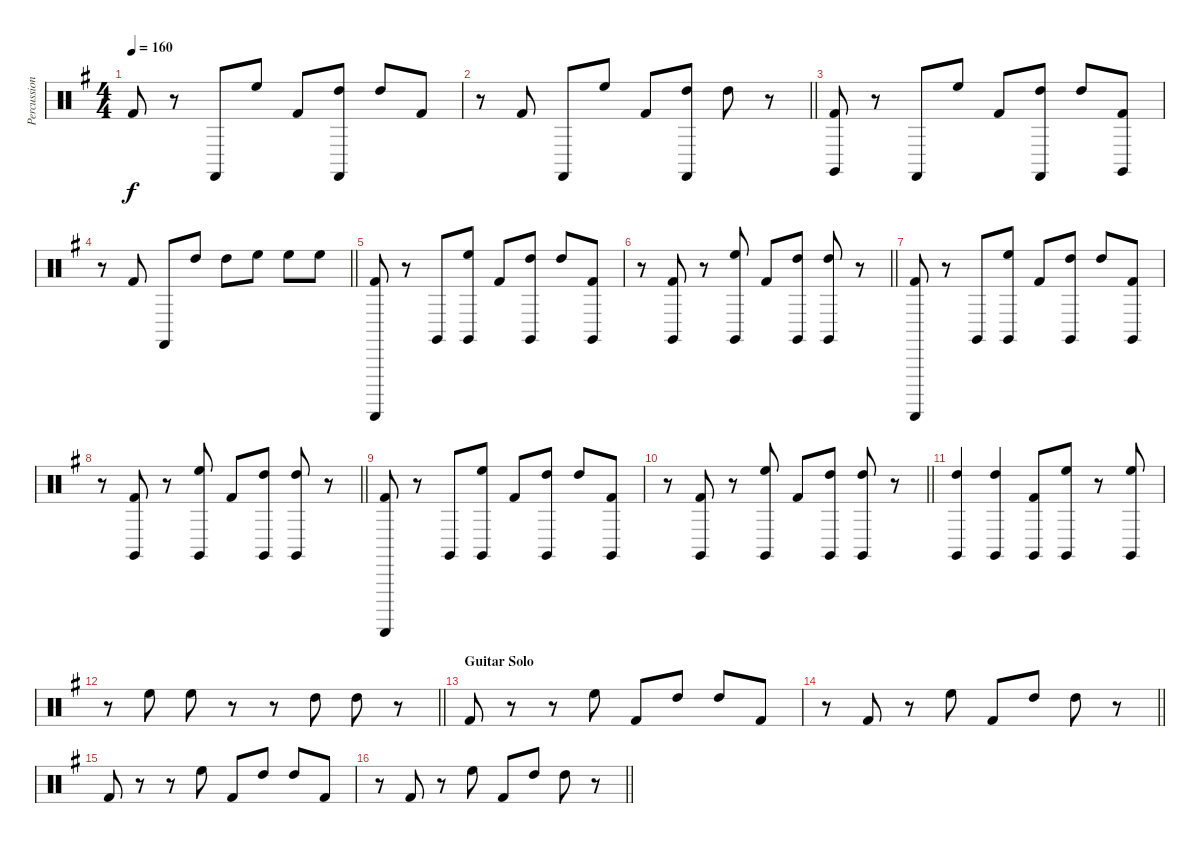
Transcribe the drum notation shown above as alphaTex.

\track ("Percussion" "Percussion") {instrument percussion}
\staff {score}
\articulation defaults
\ts (4 4)
\tempo 160
\clef neutral
\ks g "Kick (hit) 2".8{dy f}
r.8 "Castanets (hit)".8 "High Floor Tom (hit)".8 "Kick (hit) 2".8 ("High Tom (hit)" "Castanets (hit)").8 "High Tom (hit)".8 "Kick (hit) 2".8 |
\barLineRight lightlight
r.8 "Kick (hit) 2".8 "Castanets (hit)".8 "High Floor Tom (hit)".8 "Kick (hit) 2".8 ("High Tom (hit)" "Castanets (hit)").8 "High Tom (hit)".8 r.8 |
("Claves (hit)" "Kick (hit) 2").8 r.8 "Castanets (hit)".8 "High Floor Tom (hit)".8 "Kick (hit) 2".8 ("High Tom (hit)" "Castanets (hit)").8 "High Tom (hit)".8 ("Claves (hit)" "Kick (hit) 2").8 |
\barLineRight lightlight
r.8 "Kick (hit) 2".8 "Castanets (hit)".8 "High Tom (hit)".8 "High Tom (hit)".8 "High Floor Tom (hit)".8 "High Floor Tom (hit)".8 "High Floor Tom (hit)".8 |
("Guiro (scrap-return)" "Kick (hit) 2").8 r.8 "Claves (hit)".8 ("High Floor Tom (hit)" "Claves (hit)").8 "Kick (hit) 2".8 ("High Tom (hit)" "Claves (hit)").8 "High Tom (hit)".8 ("Claves (hit)" "Kick (hit) 2").8 |
\barLineRight lightlight
r.8 ("Claves (hit)" "Kick (hit) 2").8 r.8 ("High Floor Tom (hit)" "Claves (hit)").8 "Kick (hit) 2".8 ("High Tom (hit)" "Claves (hit)").8 ("High Tom (hit)" "Claves (hit)").8 r.8 |
("Guiro (scrap-return)" "Kick (hit) 2").8 r.8 "Claves (hit)".8 ("High Floor Tom (hit)" "Claves (hit)").8 "Kick (hit) 2".8 ("High Tom (hit)" "Claves (hit)").8 "High Tom (hit)".8 ("Claves (hit)" "Kick (hit) 2").8 |
\barLineRight lightlight
r.8 ("Claves (hit)" "Kick (hit) 2").8 r.8 ("High Floor Tom (hit)" "Claves (hit)").8 "Kick (hit) 2".8 ("High Tom (hit)" "Claves (hit)").8 ("High Tom (hit)" "Claves (hit)").8 r.8 |
("Guiro (scrap-return)" "Kick (hit) 2").8 r.8 "Claves (hit)".8 ("High Floor Tom (hit)" "Claves (hit)").8 "Kick (hit) 2".8 ("High Tom (hit)" "Claves (hit)").8 "High Tom (hit)".8 ("Claves (hit)" "Kick (hit) 2").8 |
\barLineRight lightlight
r.8 ("Claves (hit)" "Kick (hit) 2").8 r.8 ("High Floor Tom (hit)" "Claves (hit)").8 "Kick (hit) 2".8 ("High Tom (hit)" "Claves (hit)").8 ("High Tom (hit)" "Claves (hit)").8 r.8 |
("Claves (hit)" "High Tom (hit)").4 ("Claves (hit)" "High Tom (hit)").4 ("Claves (hit)" "Kick (hit) 2").8 ("Claves (hit)" "High Floor Tom (hit)").8 r.8 ("Claves (hit)" "High Floor Tom (hit)").8 |
\barLineRight lightlight
r.8 "High Floor Tom (hit)".8 "High Floor Tom (hit)".8 r.8 r.8 "High Tom (hit)".8 "High Tom (hit)".8 r.8 |
\section ("" "Guitar Solo")
"Kick (hit) 2".8 r.8 r.8 "High Floor Tom (hit)".8 "Kick (hit) 2".8 "High Tom (hit)".8 "High Tom (hit)".8 "Kick (hit) 2".8 |
\barLineRight lightlight
r.8 "Kick (hit) 2".8 r.8 "High Floor Tom (hit)".8 "Kick (hit) 2".8 "High Tom (hit)".8 "High Tom (hit)".8 r.8 |
"Kick (hit) 2".8 r.8 r.8 "High Floor Tom (hit)".8 "Kick (hit) 2".8 "High Tom (hit)".8 "High Tom (hit)".8 "Kick (hit) 2".8 |
\barLineRight lightlight
r.8 "Kick (hit) 2".8 r.8 "High Floor Tom (hit)".8 "Kick (hit) 2".8 "High Tom (hit)".8 "High Tom (hit)".8 r.8
